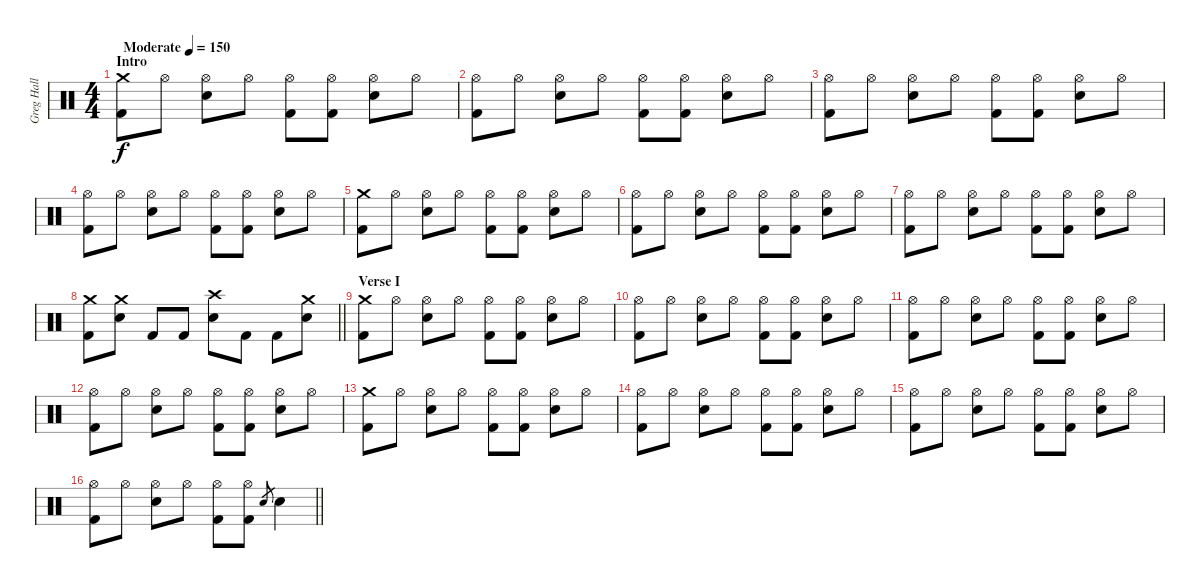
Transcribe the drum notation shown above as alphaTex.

\track ("Greg Hall" "Greg Hall") {instrument percussion}
\staff {score}
\articulation defaults
\ts (4 4)
\section ("" "Intro")
\tempo (150 "Moderate")
\clef neutral
\ks c
("Crash medium (hit)" "Kick (hit) 2").8{dy f} "Hi-Hat (open)".8 ("Hi-Hat (open)" "Electric Snare (hit)").8 "Hi-Hat (open)".8 ("Hi-Hat (open)" "Kick (hit) 2").8 ("Hi-Hat (open)" "Kick (hit) 2").8 ("Hi-Hat (open)" "Electric Snare (hit)").8 "Hi-Hat (open)".8 |
("Hi-Hat (open)" "Kick (hit) 2").8 "Hi-Hat (open)".8 ("Hi-Hat (open)" "Electric Snare (hit)").8 "Hi-Hat (open)".8 ("Hi-Hat (open)" "Kick (hit) 2").8 ("Hi-Hat (open)" "Kick (hit) 2").8 ("Hi-Hat (open)" "Electric Snare (hit)").8 "Hi-Hat (open)".8 |
("Hi-Hat (open)" "Kick (hit) 2").8 "Hi-Hat (open)".8 ("Hi-Hat (open)" "Electric Snare (hit)").8 "Hi-Hat (open)".8 ("Hi-Hat (open)" "Kick (hit) 2").8 ("Hi-Hat (open)" "Kick (hit) 2").8 ("Hi-Hat (open)" "Electric Snare (hit)").8 "Hi-Hat (open)".8 |
("Hi-Hat (open)" "Kick (hit) 2").8 "Hi-Hat (open)".8 ("Hi-Hat (open)" "Electric Snare (hit)").8 "Hi-Hat (open)".8 ("Hi-Hat (open)" "Kick (hit) 2").8 ("Hi-Hat (open)" "Kick (hit) 2").8 ("Hi-Hat (open)" "Electric Snare (hit)").8 "Hi-Hat (open)".8 |
("Crash medium (hit)" "Kick (hit) 2").8 "Hi-Hat (open)".8 ("Hi-Hat (open)" "Electric Snare (hit)").8 "Hi-Hat (open)".8 ("Hi-Hat (open)" "Kick (hit) 2").8 ("Hi-Hat (open)" "Kick (hit) 2").8 ("Hi-Hat (open)" "Electric Snare (hit)").8 "Hi-Hat (open)".8 |
("Hi-Hat (open)" "Kick (hit) 2").8 "Hi-Hat (open)".8 ("Hi-Hat (open)" "Electric Snare (hit)").8 "Hi-Hat (open)".8 ("Hi-Hat (open)" "Kick (hit) 2").8 ("Hi-Hat (open)" "Kick (hit) 2").8 ("Hi-Hat (open)" "Electric Snare (hit)").8 "Hi-Hat (open)".8 |
("Hi-Hat (open)" "Kick (hit) 2").8 "Hi-Hat (open)".8 ("Hi-Hat (open)" "Electric Snare (hit)").8 "Hi-Hat (open)".8 ("Hi-Hat (open)" "Kick (hit) 2").8 ("Hi-Hat (open)" "Kick (hit) 2").8 ("Hi-Hat (open)" "Electric Snare (hit)").8 "Hi-Hat (open)".8 |
\barLineRight lightlight
("Crash medium (hit)" "Kick (hit) 2").8 ("Crash medium (hit)" "Electric Snare (hit)").8 "Kick (hit) 2".8 "Kick (hit) 2".8 ("Crash high (hit)" "Electric Snare (hit)").8 "Kick (hit) 2".8 "Kick (hit) 2".8 ("Crash medium (hit)" "Electric Snare (hit)").8 |
\section ("" "Verse I")
("Crash medium (hit)" "Kick (hit) 2").8 "Hi-Hat (open)".8 ("Hi-Hat (open)" "Electric Snare (hit)").8 "Hi-Hat (open)".8 ("Hi-Hat (open)" "Kick (hit) 2").8 ("Hi-Hat (open)" "Kick (hit) 2").8 ("Hi-Hat (open)" "Electric Snare (hit)").8 "Hi-Hat (open)".8 |
("Hi-Hat (open)" "Kick (hit) 2").8 "Hi-Hat (open)".8 ("Hi-Hat (open)" "Electric Snare (hit)").8 "Hi-Hat (open)".8 ("Hi-Hat (open)" "Kick (hit) 2").8 ("Hi-Hat (open)" "Kick (hit) 2").8 ("Hi-Hat (open)" "Electric Snare (hit)").8 "Hi-Hat (open)".8 |
("Hi-Hat (open)" "Kick (hit) 2").8 "Hi-Hat (open)".8 ("Hi-Hat (open)" "Electric Snare (hit)").8 "Hi-Hat (open)".8 ("Hi-Hat (open)" "Kick (hit) 2").8 ("Hi-Hat (open)" "Kick (hit) 2").8 ("Hi-Hat (open)" "Electric Snare (hit)").8 "Hi-Hat (open)".8 |
("Hi-Hat (open)" "Kick (hit) 2").8 "Hi-Hat (open)".8 ("Hi-Hat (open)" "Electric Snare (hit)").8 "Hi-Hat (open)".8 ("Hi-Hat (open)" "Kick (hit) 2").8 ("Hi-Hat (open)" "Kick (hit) 2").8 ("Hi-Hat (open)" "Electric Snare (hit)").8 "Hi-Hat (open)".8 |
("Crash medium (hit)" "Kick (hit) 2").8 "Hi-Hat (open)".8 ("Hi-Hat (open)" "Electric Snare (hit)").8 "Hi-Hat (open)".8 ("Hi-Hat (open)" "Kick (hit) 2").8 ("Hi-Hat (open)" "Kick (hit) 2").8 ("Hi-Hat (open)" "Electric Snare (hit)").8 "Hi-Hat (open)".8 |
("Hi-Hat (open)" "Kick (hit) 2").8 "Hi-Hat (open)".8 ("Hi-Hat (open)" "Electric Snare (hit)").8 "Hi-Hat (open)".8 ("Hi-Hat (open)" "Kick (hit) 2").8 ("Hi-Hat (open)" "Kick (hit) 2").8 ("Hi-Hat (open)" "Electric Snare (hit)").8 "Hi-Hat (open)".8 |
("Hi-Hat (open)" "Kick (hit) 2").8 "Hi-Hat (open)".8 ("Hi-Hat (open)" "Electric Snare (hit)").8 "Hi-Hat (open)".8 ("Hi-Hat (open)" "Kick (hit) 2").8 ("Hi-Hat (open)" "Kick (hit) 2").8 ("Hi-Hat (open)" "Electric Snare (hit)").8 "Hi-Hat (open)".8 |
\barLineRight lightlight
("Hi-Hat (open)" "Kick (hit) 2").8 "Hi-Hat (open)".8 ("Hi-Hat (open)" "Electric Snare (hit)").8 "Hi-Hat (open)".8 ("Hi-Hat (open)" "Kick (hit) 2").8 ("Hi-Hat (open)" "Kick (hit) 2").8 "Electric Snare (hit)".8{gr} "Electric Snare (hit)".4
